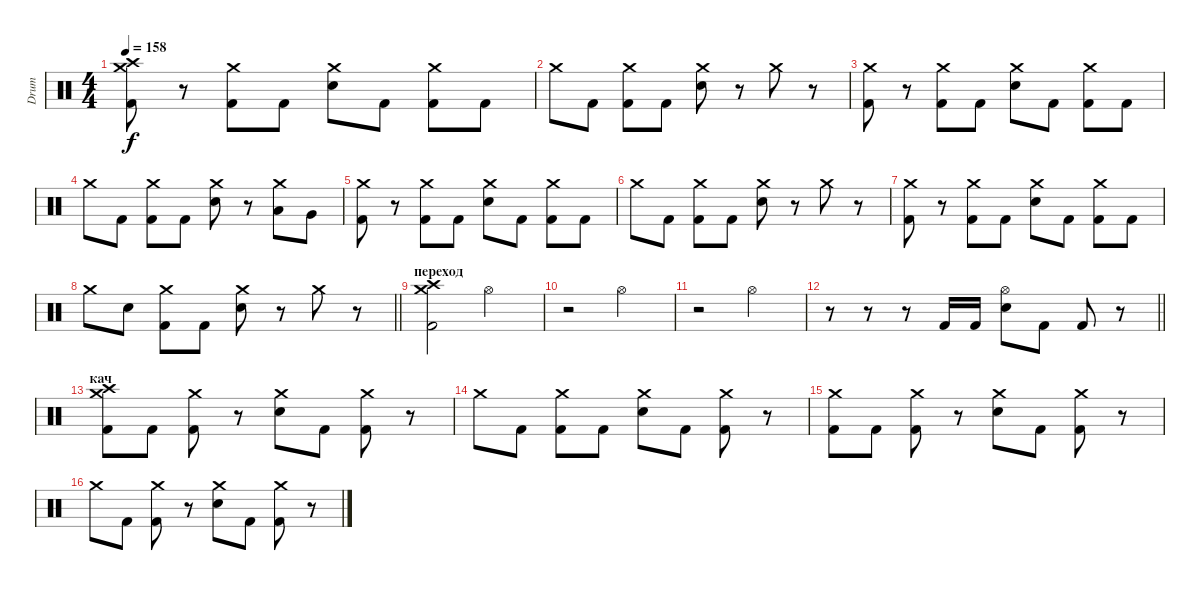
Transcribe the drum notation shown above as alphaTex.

\track ("Drum" "Drum") {instrument percussion}
\staff {score}
\articulation defaults
\ts (4 4)
\tempo 158
\clef neutral
\ks c
("Crash medium (hit)" "Crash high (hit)" "Kick (hit) 2").8{dy f} r.8 ("Crash medium (hit)" "Kick (hit) 2").8 "Kick (hit) 2".8 ("Crash medium (hit)" "Electric Snare (hit)").8 "Kick (hit) 2".8 ("Crash medium (hit)" "Kick (hit) 2").8 "Kick (hit) 2".8 |
"Crash medium (hit)".8 "Kick (hit) 2".8 ("Crash medium (hit)" "Kick (hit) 2").8 "Kick (hit) 2".8 ("Crash medium (hit)" "Electric Snare (hit)").8 r.8 "Crash medium (hit)".8 r.8 |
("Crash medium (hit)" "Kick (hit) 2").8 r.8 ("Crash medium (hit)" "Kick (hit) 2").8 "Kick (hit) 2".8 ("Crash medium (hit)" "Electric Snare (hit)").8 "Kick (hit) 2".8 ("Crash medium (hit)" "Kick (hit) 2").8 "Kick (hit) 2".8 |
"Crash medium (hit)".8 "Kick (hit) 2".8 ("Crash medium (hit)" "Kick (hit) 2").8 "Kick (hit) 2".8 ("Crash medium (hit)" "Electric Snare (hit)").8 r.8 ("Crash medium (hit)" "Low Tom (hit)").8 "Very Low Tom (hit)".8 |
("Crash medium (hit)" "Kick (hit) 2").8 r.8 ("Crash medium (hit)" "Kick (hit) 2").8 "Kick (hit) 2".8 ("Crash medium (hit)" "Electric Snare (hit)").8 "Kick (hit) 2".8 ("Crash medium (hit)" "Kick (hit) 2").8 "Kick (hit) 2".8 |
"Crash medium (hit)".8 "Kick (hit) 2".8 ("Crash medium (hit)" "Kick (hit) 2").8 "Kick (hit) 2".8 ("Crash medium (hit)" "Electric Snare (hit)").8 r.8 "Crash medium (hit)".8 r.8 |
("Crash medium (hit)" "Kick (hit) 2").8 r.8 ("Crash medium (hit)" "Kick (hit) 2").8 "Kick (hit) 2".8 ("Crash medium (hit)" "Electric Snare (hit)").8 "Kick (hit) 2".8 ("Crash medium (hit)" "Kick (hit) 2").8 "Kick (hit) 2".8 |
\barLineRight lightlight "Crash medium (hit)".8 "Electric Snare (hit)".8
("Crash medium (hit)" "Kick (hit) 2").8 "Kick (hit) 2".8 ("Crash medium (hit)" "Electric Snare (hit)").8 r.8 "Crash medium (hit)".8 r.8 |
\section ("" "переход")
("Crash high (hit)" "Crash medium (hit)" "Kick (hit) 2").2 "Hi-Hat (open)".2 |
r.2 "Hi-Hat (open)".2 |
r.2 "Hi-Hat (open)".2 |
\barLineRight lightlight
r.8 r.8 r.8 "Kick (hit) 2".16 "Kick (hit) 2".16 ("Hi-Hat (open)" "Electric Snare (hit)").8 "Kick (hit) 2".8 "Kick (hit) 2".8 r.8 |
\section ("" "кач")
("Crash high (hit)" "Crash medium (hit)" "Kick (hit) 2").8 "Kick (hit) 2".8 ("Crash medium (hit)" "Kick (hit) 2").8 r.8 ("Crash medium (hit)" "Electric Snare (hit)").8 "Kick (hit) 2".8 ("Crash medium (hit)" "Kick (hit) 2").8 r.8 |
"Crash medium (hit)".8 "Kick (hit) 2".8 ("Crash medium (hit)" "Kick (hit) 2").8 "Kick (hit) 2".8 ("Crash medium (hit)" "Electric Snare (hit)").8 "Kick (hit) 2".8 ("Crash medium (hit)" "Kick (hit) 2").8 r.8 |
("Crash medium (hit)" "Kick (hit) 2").8 "Kick (hit) 2".8 ("Crash medium (hit)" "Kick (hit) 2").8 r.8 ("Crash medium (hit)" "Electric Snare (hit)").8 "Kick (hit) 2".8 ("Crash medium (hit)" "Kick (hit) 2").8 r.8 |
"Crash medium (hit)".8 "Kick (hit) 2".8 ("Crash medium (hit)" "Kick (hit) 2").8 r.8 ("Crash medium (hit)" "Electric Snare (hit)").8 "Kick (hit) 2".8 ("Crash medium (hit)" "Kick (hit) 2").8 r.8
